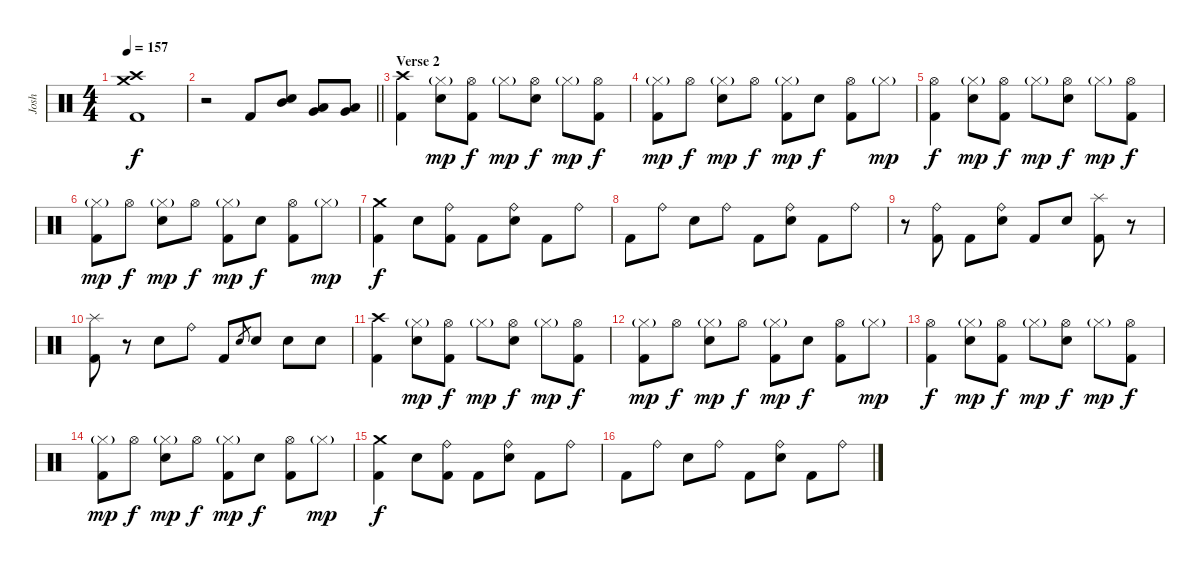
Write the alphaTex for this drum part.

\track ("Josh" "Josh") {instrument percussion}
\staff {score}
\articulation defaults
\ts (4 4)
\tempo 157
\clef neutral
\ks c
("Crash high (hit)" "Crash medium (hit)" "Kick (hit) 2").1{dy f} |
\barLineRight lightlight
r.2 "Kick (hit) 2".8 ("Mid Tom (hit)" "Electric Snare (hit)").8 ("Very Low Tom (hit)" "Low Tom (hit)").8 ("Low Floor Tom (hit)" "Very Low Tom (hit)").8 |
\section ("" "Verse 2")
("Crash high (hit)" "Kick (hit) 2").4 ("Hi-Hat (closed)"{g} "Electric Snare (hit)").8{dy mp} ("Hi-Hat (open)" "Kick (hit) 2").8{dy f} "Hi-Hat (closed)"{g}.8{dy mp} ("Hi-Hat (open)" "Electric Snare (hit)").8{dy f} "Hi-Hat (closed)"{g}.8{dy mp} ("Hi-Hat (open)" "Kick (hit) 2").8{dy f} |
("Hi-Hat (closed)"{g} "Kick (hit) 2").8{dy mp} "Hi-Hat (open)".8{dy f} ("Hi-Hat (closed)"{g} "Electric Snare (hit)").8{dy mp} "Hi-Hat (open)".8{dy f} ("Hi-Hat (closed)"{g} "Kick (hit) 2").8{dy mp} "Electric Snare (hit)".8{dy f} ("Hi-Hat (open)" "Kick (hit) 2").8 "Hi-Hat (closed)"{g}.8{dy mp} |
("Hi-Hat (open)" "Kick (hit) 2").4{dy f} ("Hi-Hat (closed)"{g} "Electric Snare (hit)").8{dy mp} ("Hi-Hat (open)" "Kick (hit) 2").8{dy f} "Hi-Hat (closed)"{g}.8{dy mp} ("Hi-Hat (open)" "Electric Snare (hit)").8{dy f} "Hi-Hat (closed)"{g}.8{dy mp} ("Hi-Hat (open)" "Kick (hit) 2").8{dy f} |
("Hi-Hat (closed)"{g} "Kick (hit) 2").8{dy mp} "Hi-Hat (open)".8{dy f} ("Hi-Hat (closed)"{g} "Electric Snare (hit)").8{dy mp} "Hi-Hat (open)".8{dy f} ("Hi-Hat (closed)"{g} "Kick (hit) 2").8{dy mp} "Electric Snare (hit)".8{dy f} ("Hi-Hat (open)" "Kick (hit) 2").8 "Hi-Hat (closed)"{g}.8{dy mp} |
("Crash medium (hit)" "Kick (hit) 2").4{dy f} "Electric Snare (hit)".8 ("Ride (bell)" "Kick (hit) 2").8 "Kick (hit) 2".8 ("Ride (bell)" "Electric Snare (hit)").8 "Kick (hit) 2".8 "Ride (bell)".8 |
"Kick (hit) 2".8 "Ride (bell)".8 "Electric Snare (hit)".8 "Ride (bell)".8 "Kick (hit) 2".8 ("Ride (bell)" "Electric Snare (hit)").8 "Kick (hit) 2".8 "Ride (bell)".8 |
r.8 ("Ride (bell)" "Kick (hit) 2").8 "Kick (hit) 2".8 ("Ride (bell)" "Electric Snare (hit)").8 "Kick (hit) 2".8 "Electric Snare (hit)".8 ("Splash (hit)" "Kick (hit) 2").8 r.8 |
("Splash (hit)" "Kick (hit) 2").8 r.8 "Electric Snare (hit)".8 "Ride (bell)".8 "Kick (hit) 2".8 "Electric Snare (hit)".8{gr} "Electric Snare (hit)".8 "Electric Snare (hit)".8 "Electric Snare (hit)".8 |
("Crash high (hit)" "Kick (hit) 2").4 ("Hi-Hat (closed)"{g} "Electric Snare (hit)").8{dy mp} ("Hi-Hat (open)" "Kick (hit) 2").8{dy f} "Hi-Hat (closed)"{g}.8{dy mp} ("Hi-Hat (open)" "Electric Snare (hit)").8{dy f} "Hi-Hat (closed)"{g}.8{dy mp} ("Hi-Hat (open)" "Kick (hit) 2").8{dy f} |
("Hi-Hat (closed)"{g} "Kick (hit) 2").8{dy mp} "Hi-Hat (open)".8{dy f} ("Hi-Hat (closed)"{g} "Electric Snare (hit)").8{dy mp} "Hi-Hat (open)".8{dy f} ("Hi-Hat (closed)"{g} "Kick (hit) 2").8{dy mp} "Electric Snare (hit)".8{dy f} ("Hi-Hat (open)" "Kick (hit) 2").8 "Hi-Hat (closed)"{g}.8{dy mp} |
("Hi-Hat (open)" "Kick (hit) 2").4{dy f} ("Hi-Hat (closed)"{g} "Electric Snare (hit)").8{dy mp} ("Hi-Hat (open)" "Kick (hit) 2").8{dy f} "Hi-Hat (closed)"{g}.8{dy mp} ("Hi-Hat (open)" "Electric Snare (hit)").8{dy f} "Hi-Hat (closed)"{g}.8{dy mp} ("Hi-Hat (open)" "Kick (hit) 2").8{dy f} |
("Hi-Hat (closed)"{g} "Kick (hit) 2").8{dy mp} "Hi-Hat (open)".8{dy f} ("Hi-Hat (closed)"{g} "Electric Snare (hit)").8{dy mp} "Hi-Hat (open)".8{dy f} ("Hi-Hat (closed)"{g} "Kick (hit) 2").8{dy mp} "Electric Snare (hit)".8{dy f} ("Hi-Hat (open)" "Kick (hit) 2").8 "Hi-Hat (closed)"{g}.8{dy mp} |
("Crash medium (hit)" "Kick (hit) 2").4{dy f} "Electric Snare (hit)".8 ("Ride (bell)" "Kick (hit) 2").8 "Kick (hit) 2".8 ("Ride (bell)" "Electric Snare (hit)").8 "Kick (hit) 2".8 "Ride (bell)".8 |
"Kick (hit) 2".8 "Ride (bell)".8 "Electric Snare (hit)".8 "Ride (bell)".8 "Kick (hit) 2".8 ("Ride (bell)" "Electric Snare (hit)").8 "Kick (hit) 2".8 "Ride (bell)".8
